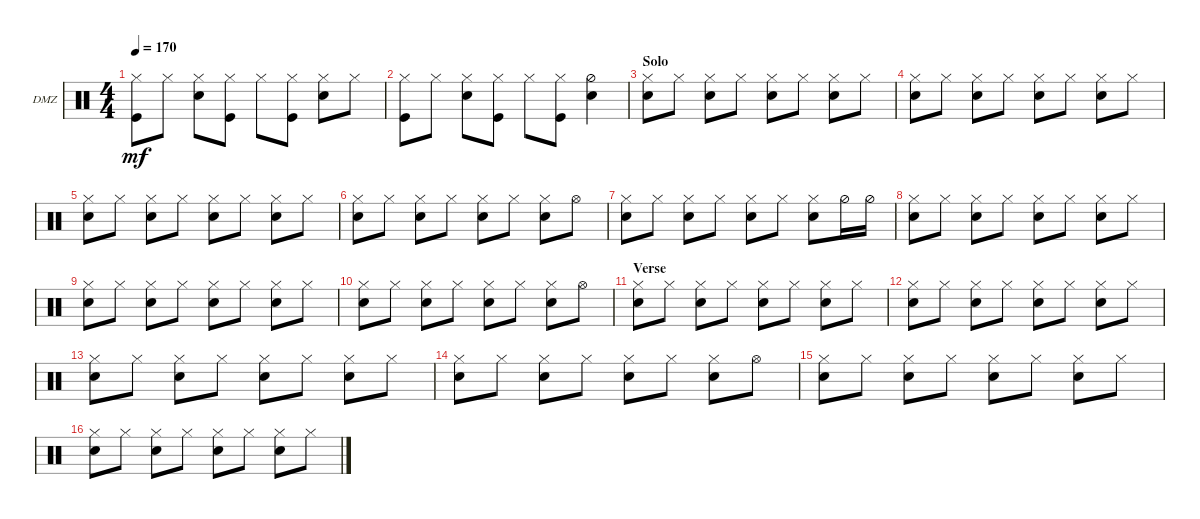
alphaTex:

\defaultSystemsLayout 4
\bracketExtendMode groupsimilarinstruments
\firstSystemTrackNameOrientation horizontal
\otherSystemsTrackNameOrientation horizontal
\track ("Drumz" "DMZ") {instrument percussion}
\staff {score}
\articulation defaults
\ts (4 4)
\tempo 170
\clef neutral
\ks c
("Hi-Hat (closed)" "Kick (hit)").8{dy mf} "Hi-Hat (closed)".8 ("Hi-Hat (closed)" "Snare (hit) 2").8 ("Hi-Hat (closed)" "Kick (hit)").8 "Hi-Hat (closed)".8 ("Hi-Hat (closed)" "Kick (hit)").8 ("Hi-Hat (closed)" "Snare (hit) 2").8 "Hi-Hat (closed)".8 |
("Hi-Hat (closed)" "Kick (hit)").8 "Hi-Hat (closed)".8 ("Hi-Hat (closed)" "Snare (hit) 2").8 ("Hi-Hat (closed)" "Kick (hit)").8 "Hi-Hat (closed)".8 ("Hi-Hat (closed)" "Kick (hit)").8 ("Snare (hit) 2" "Hi-Hat (half)").4 |
\section ("" "Solo")
("Hi-Hat (closed)" "Snare (hit) 2").8 "Hi-Hat (closed)".8 ("Hi-Hat (closed)" "Snare (hit) 2").8 "Hi-Hat (closed)".8 ("Hi-Hat (closed)" "Snare (hit) 2").8 "Hi-Hat (closed)".8 ("Hi-Hat (closed)" "Snare (hit) 2").8 "Hi-Hat (closed)".8 |
("Hi-Hat (closed)" "Snare (hit) 2").8 "Hi-Hat (closed)".8 ("Hi-Hat (closed)" "Snare (hit) 2").8 "Hi-Hat (closed)".8 ("Hi-Hat (closed)" "Snare (hit) 2").8 "Hi-Hat (closed)".8 ("Hi-Hat (closed)" "Snare (hit) 2").8 "Hi-Hat (closed)".8 |
("Hi-Hat (closed)" "Snare (hit) 2").8 "Hi-Hat (closed)".8 ("Hi-Hat (closed)" "Snare (hit) 2").8 "Hi-Hat (closed)".8 ("Hi-Hat (closed)" "Snare (hit) 2").8 "Hi-Hat (closed)".8 ("Hi-Hat (closed)" "Snare (hit) 2").8 "Hi-Hat (closed)".8 |
("Hi-Hat (closed)" "Snare (hit) 2").8 "Hi-Hat (closed)".8 ("Hi-Hat (closed)" "Snare (hit) 2").8 "Hi-Hat (closed)".8 ("Hi-Hat (closed)" "Snare (hit) 2").8 "Hi-Hat (closed)".8 ("Hi-Hat (closed)" "Snare (hit) 2").8 "Hi-Hat (open)".8 |
("Hi-Hat (closed)" "Snare (hit) 2").8 "Hi-Hat (closed)".8 ("Hi-Hat (closed)" "Snare (hit) 2").8 "Hi-Hat (closed)".8 ("Hi-Hat (closed)" "Snare (hit) 2").8 "Hi-Hat (closed)".8 ("Hi-Hat (closed)" "Snare (hit) 2").8 "Hi-Hat (half)".16 "Hi-Hat (half)".16 |
("Hi-Hat (closed)" "Snare (hit) 2").8 "Hi-Hat (closed)".8 ("Hi-Hat (closed)" "Snare (hit) 2").8 "Hi-Hat (closed)".8 ("Hi-Hat (closed)" "Snare (hit) 2").8 "Hi-Hat (closed)".8 ("Hi-Hat (closed)" "Snare (hit) 2").8 "Hi-Hat (closed)".8 |
("Hi-Hat (closed)" "Snare (hit) 2").8 "Hi-Hat (closed)".8 ("Hi-Hat (closed)" "Snare (hit) 2").8 "Hi-Hat (closed)".8 ("Hi-Hat (closed)" "Snare (hit) 2").8 "Hi-Hat (closed)".8 ("Hi-Hat (closed)" "Snare (hit) 2").8 "Hi-Hat (closed)".8 |
("Hi-Hat (closed)" "Snare (hit) 2").8 "Hi-Hat (closed)".8 ("Hi-Hat (closed)" "Snare (hit) 2").8 "Hi-Hat (closed)".8 ("Hi-Hat (closed)" "Snare (hit) 2").8 "Hi-Hat (closed)".8 ("Hi-Hat (closed)" "Snare (hit) 2").8 "Hi-Hat (open)".8 |
\section ("" "Verse")
("Hi-Hat (closed)" "Snare (hit) 2").8 "Hi-Hat (closed)".8 ("Hi-Hat (closed)" "Snare (hit) 2").8 "Hi-Hat (closed)".8 ("Hi-Hat (closed)" "Snare (hit) 2").8 "Hi-Hat (closed)".8 ("Hi-Hat (closed)" "Snare (hit) 2").8 "Hi-Hat (closed)".8 |
("Hi-Hat (closed)" "Snare (hit) 2").8 "Hi-Hat (closed)".8 ("Hi-Hat (closed)" "Snare (hit) 2").8 "Hi-Hat (closed)".8 ("Hi-Hat (closed)" "Snare (hit) 2").8 "Hi-Hat (closed)".8 ("Hi-Hat (closed)" "Snare (hit) 2").8 "Hi-Hat (closed)".8 |
("Hi-Hat (closed)" "Snare (hit) 2").8 "Hi-Hat (closed)".8 ("Hi-Hat (closed)" "Snare (hit) 2").8 "Hi-Hat (closed)".8 ("Hi-Hat (closed)" "Snare (hit) 2").8 "Hi-Hat (closed)".8 ("Hi-Hat (closed)" "Snare (hit) 2").8 "Hi-Hat (closed)".8 |
("Hi-Hat (closed)" "Snare (hit) 2").8 "Hi-Hat (closed)".8 ("Hi-Hat (closed)" "Snare (hit) 2").8 "Hi-Hat (closed)".8 ("Hi-Hat (closed)" "Snare (hit) 2").8 "Hi-Hat (closed)".8 ("Hi-Hat (closed)" "Snare (hit) 2").8 "Hi-Hat (open)".8 |
("Hi-Hat (closed)" "Snare (hit) 2").8 "Hi-Hat (closed)".8 ("Hi-Hat (closed)" "Snare (hit) 2").8 "Hi-Hat (closed)".8 ("Hi-Hat (closed)" "Snare (hit) 2").8 "Hi-Hat (closed)".8 ("Hi-Hat (closed)" "Snare (hit) 2").8 "Hi-Hat (closed)".8 |
("Hi-Hat (closed)" "Snare (hit) 2").8 "Hi-Hat (closed)".8 ("Hi-Hat (closed)" "Snare (hit) 2").8 "Hi-Hat (closed)".8 ("Hi-Hat (closed)" "Snare (hit) 2").8 "Hi-Hat (closed)".8 ("Hi-Hat (closed)" "Snare (hit) 2").8 "Hi-Hat (closed)".8
